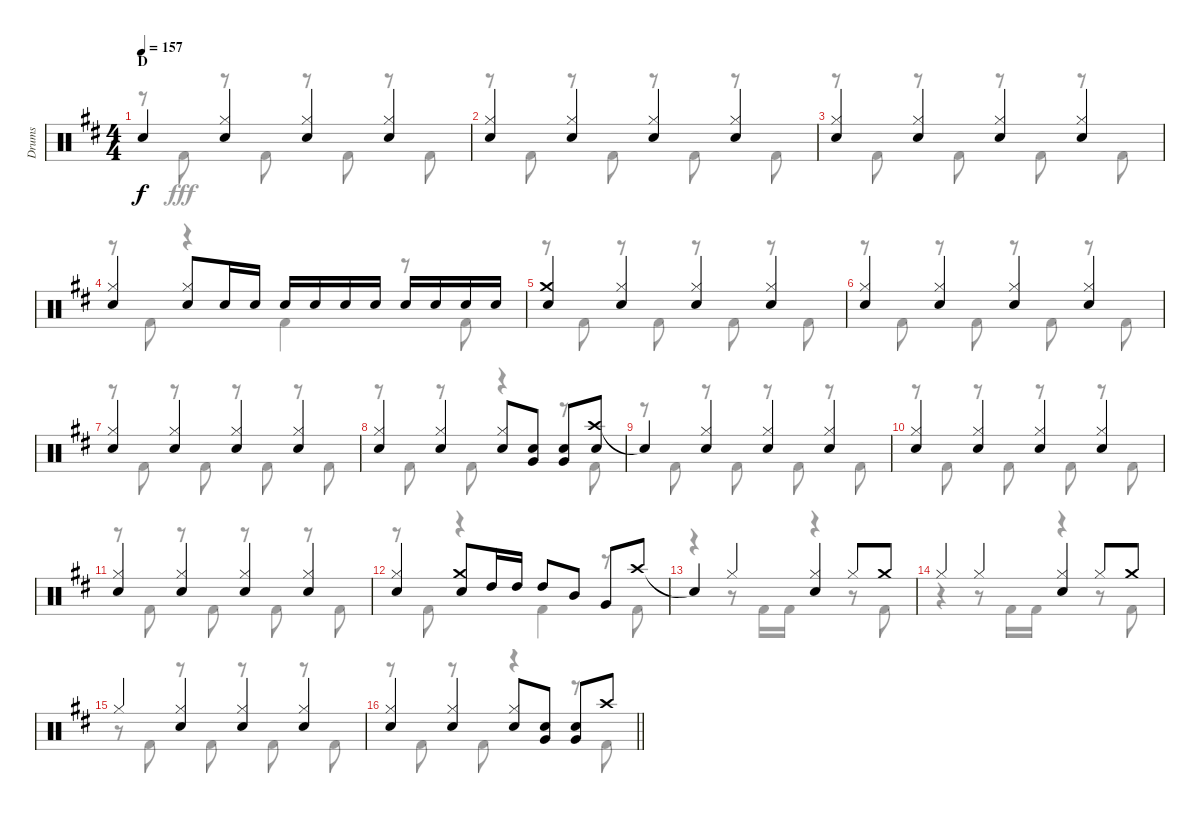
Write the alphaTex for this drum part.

\track ("Drums" "Drums") {instrument percussion}
\staff {score}
\articulation defaults
\voice
\ts (4 4)
\section ("" "D")
\tempo 157
\clef neutral
\ks d "Snare (hit)"{t}.4{dy f}
("Hi-Hat (closed)" "Snare (hit) 2").4 ("Hi-Hat (closed)" "Snare (hit) 2").4 ("Hi-Hat (closed)" "Snare (hit) 2").4 |
("Hi-Hat (closed)" "Snare (hit) 2").4 ("Hi-Hat (closed)" "Snare (hit) 2").4 ("Hi-Hat (closed)" "Snare (hit) 2").4 ("Hi-Hat (closed)" "Snare (hit) 2").4 |
("Hi-Hat (closed)" "Snare (hit) 2").4 ("Hi-Hat (closed)" "Snare (hit) 2").4 ("Hi-Hat (closed)" "Snare (hit) 2").4 ("Hi-Hat (closed)" "Snare (hit) 2").4 |
("Hi-Hat (closed)" "Snare (hit) 2").4 ("Hi-Hat (closed)" "Snare (hit) 2").8 "Snare (hit) 2".16 "Snare (hit) 2".16 "Snare (hit) 2".16 "Snare (hit) 2".16 "Snare (hit) 2".16 "Snare (hit) 2".16 "Snare (hit) 2".16 "Snare (hit) 2".16 "Snare (hit) 2".16 "Snare (hit) 2".16 |
("Crash medium (hit)" "Snare (hit) 2").4 ("Hi-Hat (closed)" "Snare (hit) 2").4 ("Hi-Hat (closed)" "Snare (hit) 2").4 ("Hi-Hat (closed)" "Snare (hit) 2").4 |
("Hi-Hat (closed)" "Snare (hit) 2").4 ("Hi-Hat (closed)" "Snare (hit) 2").4 ("Hi-Hat (closed)" "Snare (hit) 2").4 ("Hi-Hat (closed)" "Snare (hit) 2").4 |
("Hi-Hat (closed)" "Snare (hit) 2").4 ("Hi-Hat (closed)" "Snare (hit) 2").4 ("Hi-Hat (closed)" "Snare (hit) 2").4 ("Hi-Hat (closed)" "Snare (hit) 2").4 |
("Hi-Hat (closed)" "Snare (hit) 2").4 ("Hi-Hat (closed)" "Snare (hit) 2").4 ("Hi-Hat (closed)" "Snare (hit) 2").8 ("Snare (hit) 2" "Very Low Tom (hit)").8 ("Snare (hit) 2" "Very Low Tom (hit)").8 ("Crash high (hit)" "Snare (hit) 2").8 |
"Snare (hit)"{t}.4 ("Hi-Hat (closed)" "Snare (hit) 2").4 ("Hi-Hat (closed)" "Snare (hit) 2").4 ("Hi-Hat (closed)" "Snare (hit) 2").4 |
("Hi-Hat (closed)" "Snare (hit) 2").4 ("Hi-Hat (closed)" "Snare (hit) 2").4 ("Hi-Hat (closed)" "Snare (hit) 2").4 ("Hi-Hat (closed)" "Snare (hit) 2").4 |
("Hi-Hat (closed)" "Snare (hit) 2").4 ("Hi-Hat (closed)" "Snare (hit) 2").4 ("Hi-Hat (closed)" "Snare (hit) 2").4 ("Hi-Hat (closed)" "Snare (hit) 2").4 |
("Hi-Hat (closed)" "Snare (hit) 2").4 ("Crash medium (hit)" "Snare (hit) 2").8 "High Tom (hit)".16 "High Tom (hit)".16 "High Tom (hit)".8 "Mid Tom (hit)".8 "Very Low Tom (hit)".8 "Crash high (hit)".8 |
"Snare (hit)"{t}.4 "Hi-Hat (closed)".4 ("Hi-Hat (closed)" "Snare (hit) 2").4 "Hi-Hat (closed)".8 "Crash medium (hit)".8 |
"Hi-Hat (closed)".4 "Hi-Hat (closed)".4 ("Hi-Hat (closed)" "Snare (hit) 2").4 "Hi-Hat (closed)".8 "Crash medium (hit)".8 |
"Hi-Hat (closed)".4 ("Hi-Hat (closed)" "Snare (hit) 2").4 ("Hi-Hat (closed)" "Snare (hit) 2").4 ("Hi-Hat (closed)" "Snare (hit) 2").4 |
\barLineRight lightlight
("Hi-Hat (closed)" "Snare (hit) 2").4 ("Hi-Hat (closed)" "Snare (hit) 2").4 ("Hi-Hat (closed)" "Snare (hit) 2").8 ("Snare (hit) 2" "Very Low Tom (hit)").8 ("Snare (hit) 2" "Very Low Tom (hit)").8 "Crash high (hit)".8
\voice
\clef neutral
\ottava regular
\simile none
\ks d
r.8{dy fff} "Kick (hit) 2".8 r.8 "Kick (hit) 2".8 r.8 "Kick (hit) 2".8 r.8 "Kick (hit) 2".8 |
r.8 "Kick (hit) 2".8 r.8 "Kick (hit) 2".8 r.8 "Kick (hit) 2".8 r.8 "Kick (hit) 2".8 |
r.8 "Kick (hit) 2".8 r.8 "Kick (hit) 2".8 r.8 "Kick (hit) 2".8 r.8 "Kick (hit) 2".8 |
r.8 "Kick (hit) 2".8 r.4 "Kick (hit) 2".4 r.8 "Kick (hit) 2".8 |
r.8 "Kick (hit) 2".8 r.8 "Kick (hit) 2".8 r.8 "Kick (hit) 2".8 r.8 "Kick (hit) 2".8 |
r.8 "Kick (hit) 2".8 r.8 "Kick (hit) 2".8 r.8 "Kick (hit) 2".8 r.8 "Kick (hit) 2".8 |
r.8 "Kick (hit) 2".8 r.8 "Kick (hit) 2".8 r.8 "Kick (hit) 2".8 r.8 "Kick (hit) 2".8 |
r.8 "Kick (hit) 2".8 r.8 "Kick (hit) 2".8 r.4 r.8 "Kick (hit) 2".8 |
r.8 "Kick (hit) 2".8 r.8 "Kick (hit) 2".8 r.8 "Kick (hit) 2".8 r.8 "Kick (hit) 2".8 |
r.8 "Kick (hit) 2".8 r.8 "Kick (hit) 2".8 r.8 "Kick (hit) 2".8 r.8 "Kick (hit) 2".8 |
r.8 "Kick (hit) 2".8 r.8 "Kick (hit) 2".8 r.8 "Kick (hit) 2".8 r.8 "Kick (hit) 2".8 |
r.8 "Kick (hit) 2".8 r.4 "Kick (hit) 2".4 r.8 "Kick (hit) 2".8 |
r.4 r.8 "Kick (hit) 2".16 "Kick (hit) 2".16 r.4 r.8 "Kick (hit) 2".8 |
r.4 r.8 "Kick (hit) 2".16 "Kick (hit) 2".16 r.4 r.8 "Kick (hit) 2".8 |
r.8 "Kick (hit) 2".8 r.8 "Kick (hit) 2".8 r.8 "Kick (hit) 2".8 r.8 "Kick (hit) 2".8 |
\barLineRight lightlight
r.8 "Kick (hit) 2".8 r.8 "Kick (hit) 2".8 r.4 r.8 "Kick (hit) 2".8
